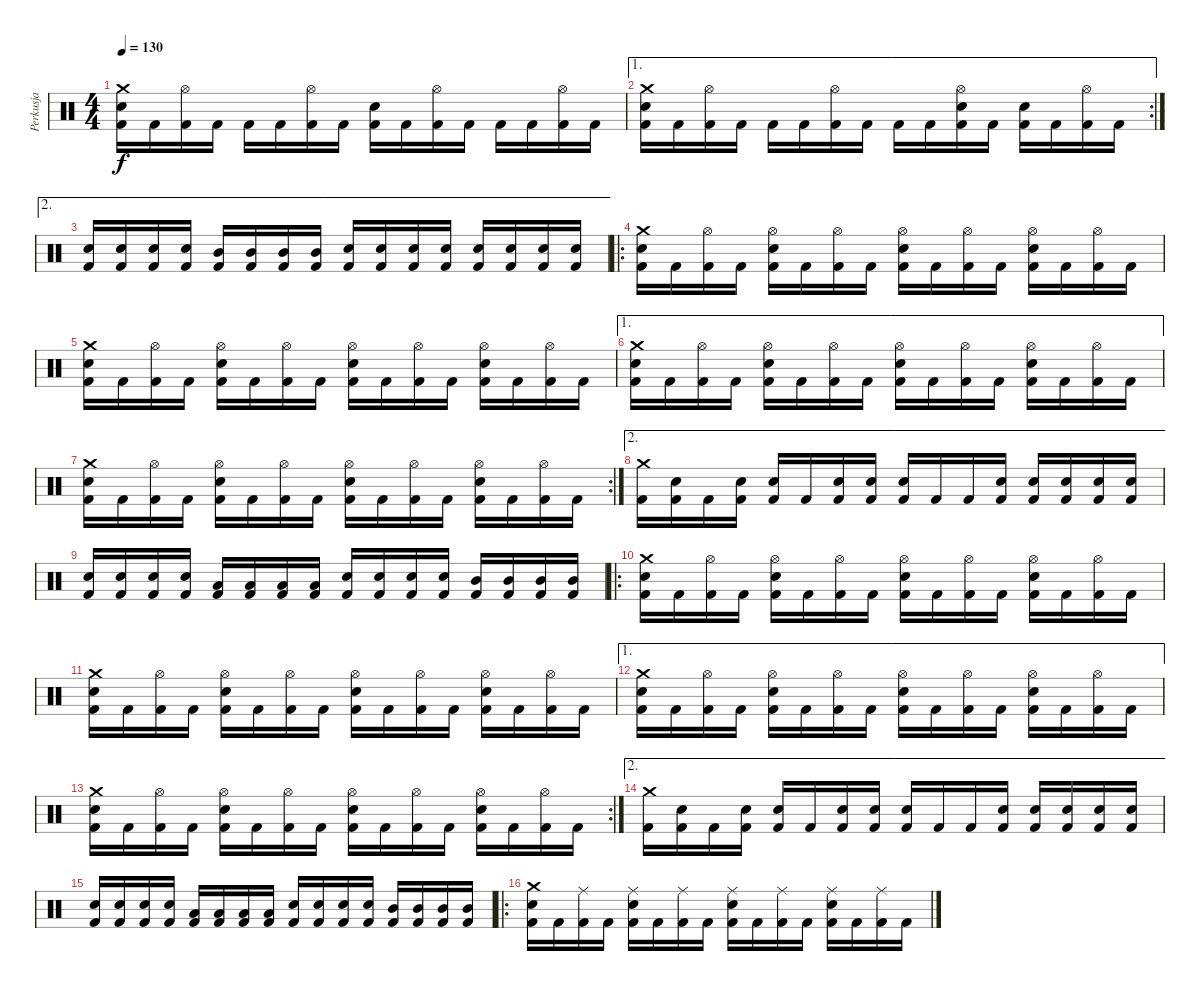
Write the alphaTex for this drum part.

\track ("Perkusja" "Perkusja") {instrument percussion}
\staff {score}
\articulation defaults
\ts (4 4)
\tempo 130
\clef neutral
\ks c
("Kick (hit) 2" "Snare (hit) 2" "Crash medium (hit)").16{dy f} "Kick (hit) 2".16 ("Kick (hit) 2" "Hi-Hat (open)").16 "Kick (hit) 2".16 "Kick (hit) 2".16 "Kick (hit) 2".16 ("Kick (hit) 2" "Hi-Hat (open)").16 "Kick (hit) 2".16 ("Kick (hit) 2" "Snare (hit) 2").16 "Kick (hit) 2".16 ("Kick (hit) 2" "Hi-Hat (open)").16 "Kick (hit) 2".16 "Kick (hit) 2".16 "Kick (hit) 2".16 ("Kick (hit) 2" "Hi-Hat (open)").16 "Kick (hit) 2".16 |
\ae 1
\rc 2
("Kick (hit) 2" "Snare (hit) 2" "Crash medium (hit)").16 "Kick (hit) 2".16 ("Kick (hit) 2" "Hi-Hat (open)").16 "Kick (hit) 2".16 "Kick (hit) 2".16 "Kick (hit) 2".16 ("Kick (hit) 2" "Hi-Hat (open)").16 "Kick (hit) 2".16 "Kick (hit) 2".16 "Kick (hit) 2".16 ("Kick (hit) 2" "Snare (hit) 2" "Hi-Hat (open)").16 "Kick (hit) 2".16 ("Kick (hit) 2" "Snare (hit) 2").16 "Kick (hit) 2".16 ("Kick (hit) 2" "Hi-Hat (open)").16 "Kick (hit) 2".16 |
\ae 2
("Kick (hit) 2" "Snare (hit) 2").16 ("Kick (hit) 2" "Snare (hit) 2").16 ("Kick (hit) 2" "Snare (hit) 2").16 ("Kick (hit) 2" "Snare (hit) 2").16 ("Kick (hit) 2" "Mid Tom (hit)").16 ("Kick (hit) 2" "Mid Tom (hit)").16 ("Kick (hit) 2" "Mid Tom (hit)").16 ("Kick (hit) 2" "Mid Tom (hit)").16 ("Kick (hit) 2" "Snare (hit) 2").16 ("Kick (hit) 2" "Snare (hit) 2").16 ("Kick (hit) 2" "Snare (hit) 2").16 ("Kick (hit) 2" "Snare (hit) 2").16 ("Kick (hit) 2" "Electric Snare (hit)").16 ("Kick (hit) 2" "Electric Snare (hit)").16 ("Kick (hit) 2" "Electric Snare (hit)").16 ("Kick (hit) 2" "Electric Snare (hit)").16 |
\ro
("Kick (hit) 2" "Snare (hit) 2" "Crash medium (hit)").16 "Kick (hit) 2".16 ("Kick (hit) 2" "Hi-Hat (open)").16 "Kick (hit) 2".16 ("Kick (hit) 2" "Snare (hit) 2" "Hi-Hat (open)").16 "Kick (hit) 2".16 ("Kick (hit) 2" "Hi-Hat (open)").16 "Kick (hit) 2".16 ("Kick (hit) 2" "Snare (hit) 2" "Hi-Hat (open)").16 "Kick (hit) 2".16 ("Kick (hit) 2" "Hi-Hat (open)").16 "Kick (hit) 2".16 ("Kick (hit) 2" "Snare (hit) 2" "Hi-Hat (open)").16 "Kick (hit) 2".16 ("Kick (hit) 2" "Hi-Hat (open)").16 "Kick (hit) 2".16 |
("Kick (hit) 2" "Snare (hit) 2" "Crash medium (hit)").16 "Kick (hit) 2".16 ("Kick (hit) 2" "Hi-Hat (open)").16 "Kick (hit) 2".16 ("Kick (hit) 2" "Snare (hit) 2" "Hi-Hat (open)").16 "Kick (hit) 2".16 ("Kick (hit) 2" "Hi-Hat (open)").16 "Kick (hit) 2".16 ("Kick (hit) 2" "Snare (hit) 2" "Hi-Hat (open)").16 "Kick (hit) 2".16 ("Kick (hit) 2" "Hi-Hat (open)").16 "Kick (hit) 2".16 ("Kick (hit) 2" "Snare (hit) 2" "Hi-Hat (open)").16 "Kick (hit) 2".16 ("Kick (hit) 2" "Hi-Hat (open)").16 "Kick (hit) 2".16 |
\ae 1
("Kick (hit) 2" "Snare (hit) 2" "Crash medium (hit)").16 "Kick (hit) 2".16 ("Kick (hit) 2" "Hi-Hat (open)").16 "Kick (hit) 2".16 ("Kick (hit) 2" "Snare (hit) 2" "Hi-Hat (open)").16 "Kick (hit) 2".16 ("Kick (hit) 2" "Hi-Hat (open)").16 "Kick (hit) 2".16 ("Kick (hit) 2" "Snare (hit) 2" "Hi-Hat (open)").16 "Kick (hit) 2".16 ("Kick (hit) 2" "Hi-Hat (open)").16 "Kick (hit) 2".16 ("Kick (hit) 2" "Snare (hit) 2" "Hi-Hat (open)").16 "Kick (hit) 2".16 ("Kick (hit) 2" "Hi-Hat (open)").16 "Kick (hit) 2".16 |
\rc 2
("Kick (hit) 2" "Snare (hit) 2" "Crash medium (hit)").16 "Kick (hit) 2".16 ("Kick (hit) 2" "Hi-Hat (open)").16 "Kick (hit) 2".16 ("Kick (hit) 2" "Snare (hit) 2" "Hi-Hat (open)").16 "Kick (hit) 2".16 ("Kick (hit) 2" "Hi-Hat (open)").16 "Kick (hit) 2".16 ("Kick (hit) 2" "Snare (hit) 2" "Hi-Hat (open)").16 "Kick (hit) 2".16 ("Kick (hit) 2" "Hi-Hat (open)").16 "Kick (hit) 2".16 ("Kick (hit) 2" "Snare (hit) 2" "Hi-Hat (open)").16 "Kick (hit) 2".16 ("Kick (hit) 2" "Hi-Hat (open)").16 "Kick (hit) 2".16 |
\ae 2
("Kick (hit) 2" "Crash medium (hit)").16 ("Kick (hit) 2" "Snare (hit) 2").16 "Kick (hit) 2".16 ("Kick (hit) 2" "Snare (hit) 2").16 ("Kick (hit) 2" "Snare (hit) 2").16 "Kick (hit) 2".16 ("Kick (hit) 2" "Snare (hit) 2").16 ("Kick (hit) 2" "Snare (hit) 2").16 ("Kick (hit) 2" "Snare (hit) 2").16 "Kick (hit) 2".16 "Kick (hit) 2".16 ("Kick (hit) 2" "Snare (hit) 2").16 ("Kick (hit) 2" "Snare (hit) 2").16 ("Kick (hit) 2" "Snare (hit) 2").16 ("Kick (hit) 2" "Snare (hit) 2").16 ("Kick (hit) 2" "Snare (hit) 2").16 |
("Kick (hit) 2" "Snare (hit) 2").16 ("Kick (hit) 2" "Snare (hit) 2").16 ("Kick (hit) 2" "Snare (hit) 2").16 ("Kick (hit) 2" "Snare (hit) 2").16 ("Kick (hit) 2" "Low Tom (hit)").16 ("Kick (hit) 2" "Low Tom (hit)").16 ("Kick (hit) 2" "Low Tom (hit)").16 ("Kick (hit) 2" "Low Tom (hit)").16 ("Kick (hit) 2" "Snare (hit) 2").16 ("Kick (hit) 2" "Snare (hit) 2").16 ("Kick (hit) 2" "Snare (hit) 2").16 ("Kick (hit) 2" "Snare (hit) 2").16 ("Kick (hit) 2" "Mid Tom (hit)").16 ("Kick (hit) 2" "Mid Tom (hit)").16 ("Kick (hit) 2" "Mid Tom (hit)").16 ("Kick (hit) 2" "Mid Tom (hit)").16 |
\ro
("Kick (hit) 2" "Snare (hit) 2" "Crash medium (hit)").16 "Kick (hit) 2".16 ("Kick (hit) 2" "Hi-Hat (open)").16 "Kick (hit) 2".16 ("Kick (hit) 2" "Snare (hit) 2" "Hi-Hat (open)").16 "Kick (hit) 2".16 ("Kick (hit) 2" "Hi-Hat (open)").16 "Kick (hit) 2".16 ("Kick (hit) 2" "Snare (hit) 2" "Hi-Hat (open)").16 "Kick (hit) 2".16 ("Kick (hit) 2" "Hi-Hat (open)").16 "Kick (hit) 2".16 ("Kick (hit) 2" "Snare (hit) 2" "Hi-Hat (open)").16 "Kick (hit) 2".16 ("Kick (hit) 2" "Hi-Hat (open)").16 "Kick (hit) 2".16 |
("Kick (hit) 2" "Snare (hit) 2" "Crash medium (hit)").16 "Kick (hit) 2".16 ("Kick (hit) 2" "Hi-Hat (open)").16 "Kick (hit) 2".16 ("Kick (hit) 2" "Snare (hit) 2" "Hi-Hat (open)").16 "Kick (hit) 2".16 ("Kick (hit) 2" "Hi-Hat (open)").16 "Kick (hit) 2".16 ("Kick (hit) 2" "Snare (hit) 2" "Hi-Hat (open)").16 "Kick (hit) 2".16 ("Kick (hit) 2" "Hi-Hat (open)").16 "Kick (hit) 2".16 ("Kick (hit) 2" "Snare (hit) 2" "Hi-Hat (open)").16 "Kick (hit) 2".16 ("Kick (hit) 2" "Hi-Hat (open)").16 "Kick (hit) 2".16 |
\ae 1
("Kick (hit) 2" "Snare (hit) 2" "Crash medium (hit)").16 "Kick (hit) 2".16 ("Kick (hit) 2" "Hi-Hat (open)").16 "Kick (hit) 2".16 ("Kick (hit) 2" "Snare (hit) 2" "Hi-Hat (open)").16 "Kick (hit) 2".16 ("Kick (hit) 2" "Hi-Hat (open)").16 "Kick (hit) 2".16 ("Kick (hit) 2" "Snare (hit) 2" "Hi-Hat (open)").16 "Kick (hit) 2".16 ("Kick (hit) 2" "Hi-Hat (open)").16 "Kick (hit) 2".16 ("Kick (hit) 2" "Snare (hit) 2" "Hi-Hat (open)").16 "Kick (hit) 2".16 ("Kick (hit) 2" "Hi-Hat (open)").16 "Kick (hit) 2".16 |
\rc 2
("Kick (hit) 2" "Snare (hit) 2" "Crash medium (hit)").16 "Kick (hit) 2".16 ("Kick (hit) 2" "Hi-Hat (open)").16 "Kick (hit) 2".16 ("Kick (hit) 2" "Snare (hit) 2" "Hi-Hat (open)").16 "Kick (hit) 2".16 ("Kick (hit) 2" "Hi-Hat (open)").16 "Kick (hit) 2".16 ("Kick (hit) 2" "Snare (hit) 2" "Hi-Hat (open)").16 "Kick (hit) 2".16 ("Kick (hit) 2" "Hi-Hat (open)").16 "Kick (hit) 2".16 ("Kick (hit) 2" "Snare (hit) 2" "Hi-Hat (open)").16 "Kick (hit) 2".16 ("Kick (hit) 2" "Hi-Hat (open)").16 "Kick (hit) 2".16 |
\ae 2
("Kick (hit) 2" "Crash medium (hit)").16 ("Kick (hit) 2" "Snare (hit) 2").16 "Kick (hit) 2".16 ("Kick (hit) 2" "Snare (hit) 2").16 ("Kick (hit) 2" "Snare (hit) 2").16 "Kick (hit) 2".16 ("Kick (hit) 2" "Snare (hit) 2").16 ("Kick (hit) 2" "Snare (hit) 2").16 ("Kick (hit) 2" "Snare (hit) 2").16 "Kick (hit) 2".16 "Kick (hit) 2".16 ("Kick (hit) 2" "Snare (hit) 2").16 ("Kick (hit) 2" "Snare (hit) 2").16 ("Kick (hit) 2" "Snare (hit) 2").16 ("Kick (hit) 2" "Snare (hit) 2").16 ("Kick (hit) 2" "Snare (hit) 2").16 |
("Kick (hit) 2" "Snare (hit) 2").16 ("Kick (hit) 2" "Snare (hit) 2").16 ("Kick (hit) 2" "Snare (hit) 2").16 ("Kick (hit) 2" "Snare (hit) 2").16 ("Kick (hit) 2" "Low Tom (hit)").16 ("Kick (hit) 2" "Low Tom (hit)").16 ("Kick (hit) 2" "Low Tom (hit)").16 ("Kick (hit) 2" "Low Tom (hit)").16 ("Kick (hit) 2" "Snare (hit) 2").16 ("Kick (hit) 2" "Snare (hit) 2").16 ("Kick (hit) 2" "Snare (hit) 2").16 ("Kick (hit) 2" "Snare (hit) 2").16 ("Kick (hit) 2" "Mid Tom (hit)").16 ("Kick (hit) 2" "Mid Tom (hit)").16 ("Kick (hit) 2" "Mid Tom (hit)").16 ("Kick (hit) 2" "Mid Tom (hit)").16 |
\ro
("Kick (hit) 2" "Snare (hit) 2" "Crash medium (hit)").16 "Kick (hit) 2".16 ("Kick (hit) 2" "Ride (middle)").16 "Kick (hit) 2".16 ("Kick (hit) 2" "Snare (hit) 2" "Ride (middle)").16 "Kick (hit) 2".16 ("Kick (hit) 2" "Ride (middle)").16 "Kick (hit) 2".16 ("Kick (hit) 2" "Snare (hit) 2" "Ride (middle)").16 "Kick (hit) 2".16 ("Kick (hit) 2" "Ride (middle)").16 "Kick (hit) 2".16 ("Kick (hit) 2" "Snare (hit) 2" "Ride (middle)").16 "Kick (hit) 2".16 ("Kick (hit) 2" "Ride (middle)").16 "Kick (hit) 2".16
